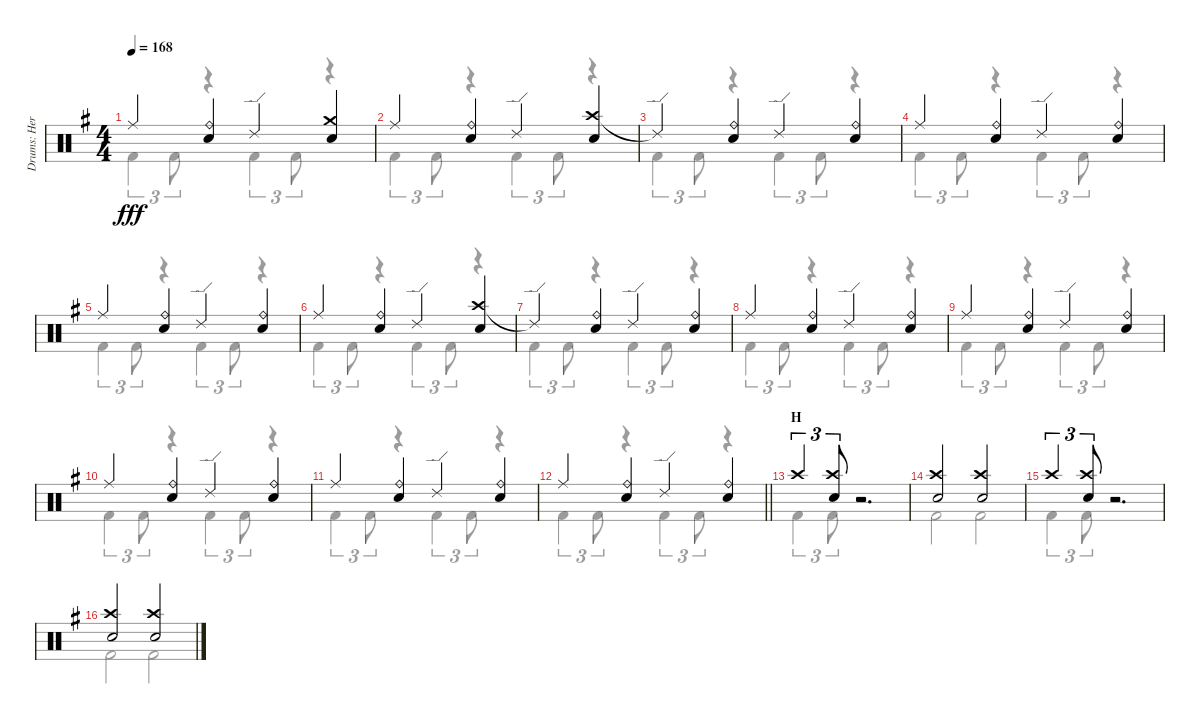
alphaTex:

\track ("Drums: Herman" "Drums: Her") {instrument percussion}
\staff {score}
\articulation defaults
\voice
\ts (4 4)
\tempo 168
\clef neutral
\ks g "Ride (middle)".4{dy fff}
("Ride (bell)" "Snare (hit) 2").4 "Ride (edge) 2".4 ("Crash medium (hit)" "Snare (hit) 2").4 |
"Ride (middle)".4 ("Ride (bell)" "Snare (hit) 2").4 "Ride (edge) 2".4 ("Crash high (hit)" "Snare (hit) 2").4 |
"Ride (edge) 2"{t}.4 ("Ride (bell)" "Snare (hit) 2").4 "Ride (edge) 2".4 ("Ride (bell)" "Snare (hit) 2").4 |
"Ride (middle)".4 ("Ride (bell)" "Snare (hit) 2").4 "Ride (edge) 2".4 ("Ride (bell)" "Snare (hit) 2").4 |
"Ride (middle)".4 ("Ride (bell)" "Snare (hit) 2").4 "Ride (edge) 2".4 ("Ride (bell)" "Snare (hit) 2").4 |
"Ride (middle)".4 ("Ride (bell)" "Snare (hit) 2").4 "Ride (edge) 2".4 ("Crash high (hit)" "Snare (hit) 2").4 |
"Ride (edge) 2"{t}.4 ("Ride (bell)" "Snare (hit) 2").4 "Ride (edge) 2".4 ("Ride (bell)" "Snare (hit) 2").4 |
"Ride (middle)".4 ("Ride (bell)" "Snare (hit) 2").4 "Ride (edge) 2".4 ("Ride (bell)" "Snare (hit) 2").4 |
"Ride (middle)".4 ("Ride (bell)" "Snare (hit) 2").4 "Ride (edge) 2".4 ("Ride (bell)" "Snare (hit) 2").4 |
"Ride (middle)".4 ("Ride (bell)" "Snare (hit) 2").4 "Ride (edge) 2".4 ("Ride (bell)" "Snare (hit) 2").4 |
"Ride (middle)".4 ("Ride (bell)" "Snare (hit) 2").4 "Ride (edge) 2".4 ("Ride (bell)" "Snare (hit) 2").4 |
\barLineRight lightlight "Ride (middle)".4
("Ride (bell)" "Snare (hit) 2").4 "Ride (edge) 2".4 ("Ride (bell)" "Snare (hit) 2").4 |
\section ("" "H")
"Crash high (hit)".4{tu (3 2)} ("Crash high (hit)" "Snare (hit) 2").8{tu (3 2)} r.2{d} |
("Crash high (hit)" "Snare (hit) 2").2 ("Crash high (hit)" "Snare (hit) 2").2 |
"Crash high (hit)".4{tu (3 2)} ("Crash high (hit)" "Snare (hit) 2").8{tu (3 2)} r.2{d} |
("Crash high (hit)" "Snare (hit) 2").2 ("Crash high (hit)" "Snare (hit) 2").2
\voice
\clef neutral
\ottava regular
\simile none
\ks g "Kick (hit) 2".4{tu (3 2) dy fff} "Kick (hit) 2".8{tu (3 2)}
r.4 "Kick (hit) 2".4{tu (3 2)} "Kick (hit) 2".8{tu (3 2)} r.4 |
"Kick (hit) 2".4{tu (3 2)} "Kick (hit) 2".8{tu (3 2)} r.4 "Kick (hit) 2".4{tu (3 2)} "Kick (hit) 2".8{tu (3 2)} r.4 |
"Kick (hit) 2".4{tu (3 2)} "Kick (hit) 2".8{tu (3 2)} r.4 "Kick (hit) 2".4{tu (3 2)} "Kick (hit) 2".8{tu (3 2)} r.4 |
"Kick (hit) 2".4{tu (3 2)} "Kick (hit) 2".8{tu (3 2)} r.4 "Kick (hit) 2".4{tu (3 2)} "Kick (hit) 2".8{tu (3 2)} r.4 |
"Kick (hit) 2".4{tu (3 2)} "Kick (hit) 2".8{tu (3 2)} r.4 "Kick (hit) 2".4{tu (3 2)} "Kick (hit) 2".8{tu (3 2)} r.4 |
"Kick (hit) 2".4{tu (3 2)} "Kick (hit) 2".8{tu (3 2)} r.4 "Kick (hit) 2".4{tu (3 2)} "Kick (hit) 2".8{tu (3 2)} r.4 |
"Kick (hit) 2".4{tu (3 2)} "Kick (hit) 2".8{tu (3 2)} r.4 "Kick (hit) 2".4{tu (3 2)} "Kick (hit) 2".8{tu (3 2)} r.4 |
"Kick (hit) 2".4{tu (3 2)} "Kick (hit) 2".8{tu (3 2)} r.4 "Kick (hit) 2".4{tu (3 2)} "Kick (hit) 2".8{tu (3 2)} r.4 |
"Kick (hit) 2".4{tu (3 2)} "Kick (hit) 2".8{tu (3 2)} r.4 "Kick (hit) 2".4{tu (3 2)} "Kick (hit) 2".8{tu (3 2)} r.4 |
"Kick (hit) 2".4{tu (3 2)} "Kick (hit) 2".8{tu (3 2)} r.4 "Kick (hit) 2".4{tu (3 2)} "Kick (hit) 2".8{tu (3 2)} r.4 |
"Kick (hit) 2".4{tu (3 2)} "Kick (hit) 2".8{tu (3 2)} r.4 "Kick (hit) 2".4{tu (3 2)} "Kick (hit) 2".8{tu (3 2)} r.4 |
\barLineRight lightlight "Kick (hit) 2".4{tu (3 2)} "Kick (hit) 2".8{tu (3 2)}
r.4 "Kick (hit) 2".4{tu (3 2)} "Kick (hit) 2".8{tu (3 2)} r.4 |
"Kick (hit) 2".4{tu (3 2)} "Kick (hit) 2".8{tu (3 2)} r.2{d} |
"Kick (hit) 2".2 "Kick (hit) 2".2 |
"Kick (hit) 2".4{tu (3 2)} "Kick (hit) 2".8{tu (3 2)} r.2{d} |
"Kick (hit) 2".2 "Kick (hit) 2".2
